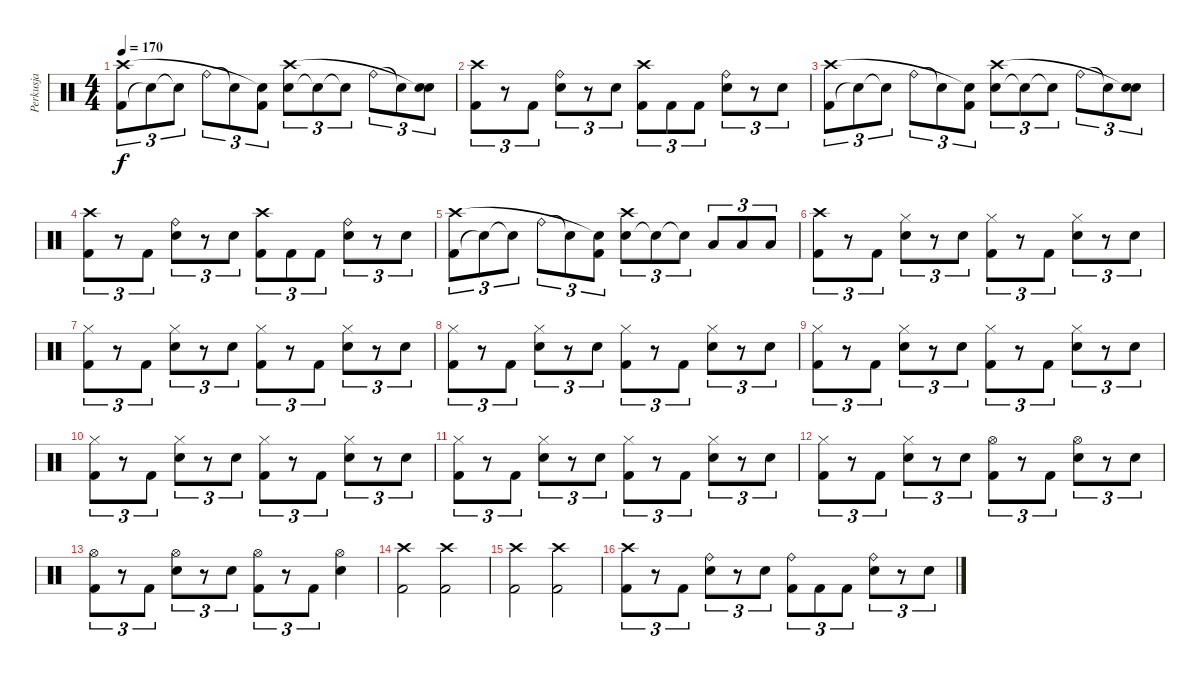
\track ("Perkusja" "Perkusja") {instrument percussion}
\staff {score}
\articulation defaults
\ts (4 4)
\tempo 170
\clef neutral
\ks c
("Kick (hit) 2" "Crash high (hit)").8{tu (3 2) dy f} "Snare (hit)"{t}.8{tu (3 2)} "Snare (hit)"{t}.8{tu (3 2)} "Ride (bell)".8{tu (3 2)} "Snare (hit)"{t}.8{tu (3 2)} ("Kick (hit) 2" "Snare (hit)"{t}).8{tu (3 2)} ("Electric Snare (hit)" "Crash high (hit)").8{tu (3 2)} "Snare (hit)"{t}.8{tu (3 2)} "Snare (hit)"{t}.8{tu (3 2)} "Ride (bell)".8{tu (3 2)} "Snare (hit)"{t}.8{tu (3 2)} ("Electric Snare (hit)" "Snare (hit)"{t}).8{tu (3 2)} |
("Kick (hit) 2" "Crash high (hit)").8{tu (3 2)} r.8{tu (3 2)} "Kick (hit) 2".8{tu (3 2)} ("Electric Snare (hit)" "Ride (bell)").8{tu (3 2)} r.8{tu (3 2)} "Electric Snare (hit)".8{tu (3 2)} ("Kick (hit) 2" "Crash high (hit)").8{tu (3 2)} "Kick (hit) 2".8{tu (3 2)} "Kick (hit) 2".8{tu (3 2)} ("Electric Snare (hit)" "Ride (bell)").8{tu (3 2)} r.8{tu (3 2)} "Electric Snare (hit)".8{tu (3 2)} |
("Kick (hit) 2" "Crash high (hit)").8{tu (3 2)} "Snare (hit)"{t}.8{tu (3 2)} "Snare (hit)"{t}.8{tu (3 2)} "Ride (bell)".8{tu (3 2)} "Snare (hit)"{t}.8{tu (3 2)} ("Kick (hit) 2" "Snare (hit)"{t}).8{tu (3 2)} ("Electric Snare (hit)" "Crash high (hit)").8{tu (3 2)} "Snare (hit)"{t}.8{tu (3 2)} "Snare (hit)"{t}.8{tu (3 2)} "Ride (bell)".8{tu (3 2)} "Snare (hit)"{t}.8{tu (3 2)} ("Electric Snare (hit)" "Snare (hit)"{t}).8{tu (3 2)} |
("Kick (hit) 2" "Crash high (hit)").8{tu (3 2)} r.8{tu (3 2)} "Kick (hit) 2".8{tu (3 2)} ("Electric Snare (hit)" "Ride (bell)").8{tu (3 2)} r.8{tu (3 2)} "Electric Snare (hit)".8{tu (3 2)} ("Kick (hit) 2" "Crash high (hit)").8{tu (3 2)} "Kick (hit) 2".8{tu (3 2)} "Kick (hit) 2".8{tu (3 2)} ("Electric Snare (hit)" "Ride (bell)").8{tu (3 2)} r.8{tu (3 2)} "Electric Snare (hit)".8{tu (3 2)} |
("Kick (hit) 2" "Crash high (hit)").8{tu (3 2)} "Snare (hit)"{t}.8{tu (3 2)} "Snare (hit)"{t}.8{tu (3 2)} "Ride (bell)".8{tu (3 2)} "Snare (hit)"{t}.8{tu (3 2)} ("Kick (hit) 2" "Snare (hit)"{t}).8{tu (3 2)} ("Electric Snare (hit)" "Crash high (hit)").8{tu (3 2)} "Snare (hit)"{t}.8{tu (3 2)} "Snare (hit)"{t}.8{tu (3 2)} "Low Tom (hit)".8{tu (3 2)} "Low Tom (hit)".8{tu (3 2)} "Low Tom (hit)".8{tu (3 2)} |
("Kick (hit) 2" "Crash high (hit)").8{tu (3 2)} r.8{tu (3 2)} "Kick (hit) 2".8{tu (3 2)} ("Electric Snare (hit)" "Hi-Hat (closed)").8{tu (3 2)} r.8{tu (3 2)} "Electric Snare (hit)".8{tu (3 2)} ("Kick (hit) 2" "Hi-Hat (closed)").8{tu (3 2)} r.8{tu (3 2)} "Kick (hit) 2".8{tu (3 2)} ("Electric Snare (hit)" "Hi-Hat (closed)").8{tu (3 2)} r.8{tu (3 2)} "Electric Snare (hit)".8{tu (3 2)} |
("Kick (hit) 2" "Hi-Hat (closed)").8{tu (3 2)} r.8{tu (3 2)} "Kick (hit) 2".8{tu (3 2)} ("Electric Snare (hit)" "Hi-Hat (closed)").8{tu (3 2)} r.8{tu (3 2)} "Electric Snare (hit)".8{tu (3 2)} ("Kick (hit) 2" "Hi-Hat (closed)").8{tu (3 2)} r.8{tu (3 2)} "Kick (hit) 2".8{tu (3 2)} ("Electric Snare (hit)" "Hi-Hat (closed)").8{tu (3 2)} r.8{tu (3 2)} "Electric Snare (hit)".8{tu (3 2)} |
("Kick (hit) 2" "Hi-Hat (closed)").8{tu (3 2)} r.8{tu (3 2)} "Kick (hit) 2".8{tu (3 2)} ("Electric Snare (hit)" "Hi-Hat (closed)").8{tu (3 2)} r.8{tu (3 2)} "Electric Snare (hit)".8{tu (3 2)} ("Kick (hit) 2" "Hi-Hat (closed)").8{tu (3 2)} r.8{tu (3 2)} "Kick (hit) 2".8{tu (3 2)} ("Electric Snare (hit)" "Hi-Hat (closed)").8{tu (3 2)} r.8{tu (3 2)} "Electric Snare (hit)".8{tu (3 2)} |
("Kick (hit) 2" "Hi-Hat (closed)").8{tu (3 2)} r.8{tu (3 2)} "Kick (hit) 2".8{tu (3 2)} ("Electric Snare (hit)" "Hi-Hat (closed)").8{tu (3 2)} r.8{tu (3 2)} "Electric Snare (hit)".8{tu (3 2)} ("Kick (hit) 2" "Hi-Hat (closed)").8{tu (3 2)} r.8{tu (3 2)} "Kick (hit) 2".8{tu (3 2)} ("Electric Snare (hit)" "Hi-Hat (closed)").8{tu (3 2)} r.8{tu (3 2)} "Electric Snare (hit)".8{tu (3 2)} |
("Kick (hit) 2" "Hi-Hat (closed)").8{tu (3 2)} r.8{tu (3 2)} "Kick (hit) 2".8{tu (3 2)} ("Electric Snare (hit)" "Hi-Hat (closed)").8{tu (3 2)} r.8{tu (3 2)} "Electric Snare (hit)".8{tu (3 2)} ("Kick (hit) 2" "Hi-Hat (closed)").8{tu (3 2)} r.8{tu (3 2)} "Kick (hit) 2".8{tu (3 2)} ("Electric Snare (hit)" "Hi-Hat (closed)").8{tu (3 2)} r.8{tu (3 2)} "Electric Snare (hit)".8{tu (3 2)} |
("Kick (hit) 2" "Hi-Hat (closed)").8{tu (3 2)} r.8{tu (3 2)} "Kick (hit) 2".8{tu (3 2)} ("Electric Snare (hit)" "Hi-Hat (closed)").8{tu (3 2)} r.8{tu (3 2)} "Electric Snare (hit)".8{tu (3 2)} ("Kick (hit) 2" "Hi-Hat (closed)").8{tu (3 2)} r.8{tu (3 2)} "Kick (hit) 2".8{tu (3 2)} ("Electric Snare (hit)" "Hi-Hat (closed)").8{tu (3 2)} r.8{tu (3 2)} "Electric Snare (hit)".8{tu (3 2)} |
("Kick (hit) 2" "Hi-Hat (closed)").8{tu (3 2)} r.8{tu (3 2)} "Kick (hit) 2".8{tu (3 2)} ("Electric Snare (hit)" "Hi-Hat (closed)").8{tu (3 2)} r.8{tu (3 2)} "Electric Snare (hit)".8{tu (3 2)} ("Kick (hit) 2" "Hi-Hat (open)").8{tu (3 2)} r.8{tu (3 2)} "Kick (hit) 2".8{tu (3 2)} ("Electric Snare (hit)" "Hi-Hat (open)").8{tu (3 2)} r.8{tu (3 2)} "Electric Snare (hit)".8{tu (3 2)} |
("Kick (hit) 2" "Hi-Hat (open)").8{tu (3 2)} r.8{tu (3 2)} "Kick (hit) 2".8{tu (3 2)} ("Electric Snare (hit)" "Hi-Hat (open)").8{tu (3 2)} r.8{tu (3 2)} "Electric Snare (hit)".8{tu (3 2)} ("Kick (hit) 2" "Hi-Hat (open)").8{tu (3 2)} r.8{tu (3 2)} "Kick (hit) 2".8{tu (3 2)} ("Electric Snare (hit)" "Hi-Hat (open)").4 |
("Kick (hit) 2" "Crash high (hit)").2 ("Kick (hit) 2" "Crash high (hit)").2 |
("Kick (hit) 2" "Crash high (hit)").2 ("Kick (hit) 2" "Crash high (hit)").2 |
("Kick (hit) 2" "Crash high (hit)").8{tu (3 2)} r.8{tu (3 2)} "Kick (hit) 2".8{tu (3 2)} ("Electric Snare (hit)" "Ride (bell)").8{tu (3 2)} r.8{tu (3 2)} "Electric Snare (hit)".8{tu (3 2)} ("Kick (hit) 2" "Ride (bell)").8{tu (3 2)} "Kick (hit) 2".8{tu (3 2)} "Kick (hit) 2".8{tu (3 2)} ("Electric Snare (hit)" "Ride (bell)").8{tu (3 2)} r.8{tu (3 2)} "Electric Snare (hit)".8{tu (3 2)}
